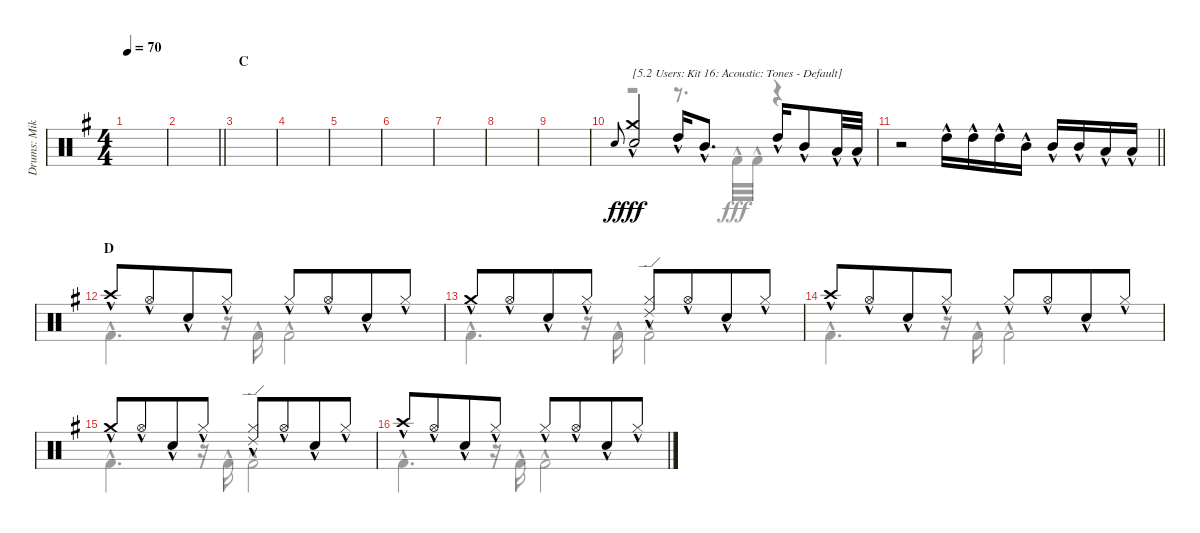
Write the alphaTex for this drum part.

\track ("Drums: Mike" "Drums: Mik") {instrument percussion}
\staff {score}
\articulation defaults
\voice
\ts (4 4)
\tempo 70
\clef neutral
\ks g
|
\barLineRight lightlight
|
\section ("" "C")
|
|
|
|
|
|
|
"Electric Snare (hit)".8{gr onbeat} ("Crash medium (hit)"{hac} "Snare (hit) 2"{hac}).2{txt "[5.2 Users: Kit 16: Acoustic: Tones - Default]" dy fff} "High Tom (hit)"{hac}.16 "Mid Tom (hit)"{hac}.8{d} "High Tom (hit)"{hac}.16 "Mid Tom (hit)"{hac}.8 "Low Tom (hit)"{hac}.32 "Low Tom (hit)"{hac}.32 |
\barLineRight lightlight
r.2 "High Tom (hit)"{hac}.16 "High Tom (hit)"{hac}.16 "High Tom (hit)"{hac}.16 "Mid Tom (hit)"{hac}.16 "Mid Tom (hit)"{hac}.16 "Mid Tom (hit)"{hac}.16 "Low Tom (hit)"{hac}.16 "Low Tom (hit)"{hac}.16 |
\section ("" "D")
"Crash high (hit)"{hac}.8 "Hi-Hat (open)"{hac}.8{beam merge} "Snare (hit) 2"{hac}.8 "Hi-Hat (closed)"{hac}.8 "Hi-Hat (closed)"{hac}.8 "Hi-Hat (open)"{hac}.8{beam merge} "Snare (hit) 2"{hac}.8 "Hi-Hat (closed)"{hac}.8 |
"Crash medium (hit)"{hac}.8 "Hi-Hat (open)"{hac}.8{beam merge} "Snare (hit) 2"{hac}.8 "Hi-Hat (closed)"{hac}.8 ("Ride (edge) 2"{hac} "Hi-Hat (closed)"{hac}).8 "Hi-Hat (open)"{hac}.8{beam merge} "Snare (hit) 2"{hac}.8 "Hi-Hat (closed)"{hac}.8 |
"Crash high (hit)"{hac}.8 "Hi-Hat (open)"{hac}.8{beam merge} "Snare (hit) 2"{hac}.8 "Hi-Hat (closed)"{hac}.8 "Hi-Hat (closed)"{hac}.8 "Hi-Hat (open)"{hac}.8{beam merge} "Snare (hit) 2"{hac}.8 "Hi-Hat (closed)"{hac}.8 |
"Crash medium (hit)"{hac}.8 "Hi-Hat (open)"{hac}.8{beam merge} "Snare (hit) 2"{hac}.8 "Hi-Hat (closed)"{hac}.8 ("Ride (edge) 2"{hac} "Hi-Hat (closed)"{hac}).8 "Hi-Hat (open)"{hac}.8{beam merge} "Snare (hit) 2"{hac}.8 "Hi-Hat (closed)"{hac}.8 |
"Crash high (hit)"{hac}.8 "Hi-Hat (open)"{hac}.8{beam merge} "Snare (hit) 2"{hac}.8 "Hi-Hat (closed)"{hac}.8 "Hi-Hat (closed)"{hac}.8 "Hi-Hat (open)"{hac}.8{beam merge} "Snare (hit) 2"{hac}.8 "Hi-Hat (closed)"{hac}.8
\voice
\clef neutral
\ottava regular
\simile none
\ks g
|
\barLineRight lightlight
|
|
|
|
|
|
|
|
r.2 r.8{d} "Kick (hit) 2"{hac}.32 "Kick (hit) 2"{hac}.32 r.4 |
\barLineRight lightlight
|
"Kick (hit) 2"{hac}.4{d} r.16 "Kick (hit) 2"{hac}.16 "Kick (hit) 2"{hac}.2 |
"Kick (hit) 2"{hac}.4{d} r.16 "Kick (hit) 2"{hac}.16 "Kick (hit) 2"{hac}.2 |
"Kick (hit) 2"{hac}.4{d} r.16 "Kick (hit) 2"{hac}.16 "Kick (hit) 2"{hac}.2 |
"Kick (hit) 2"{hac}.4{d} r.16 "Kick (hit) 2"{hac}.16 "Kick (hit) 2"{hac}.2 |
"Kick (hit) 2"{hac}.4{d} r.16 "Kick (hit) 2"{hac}.16 "Kick (hit) 2"{hac}.2
